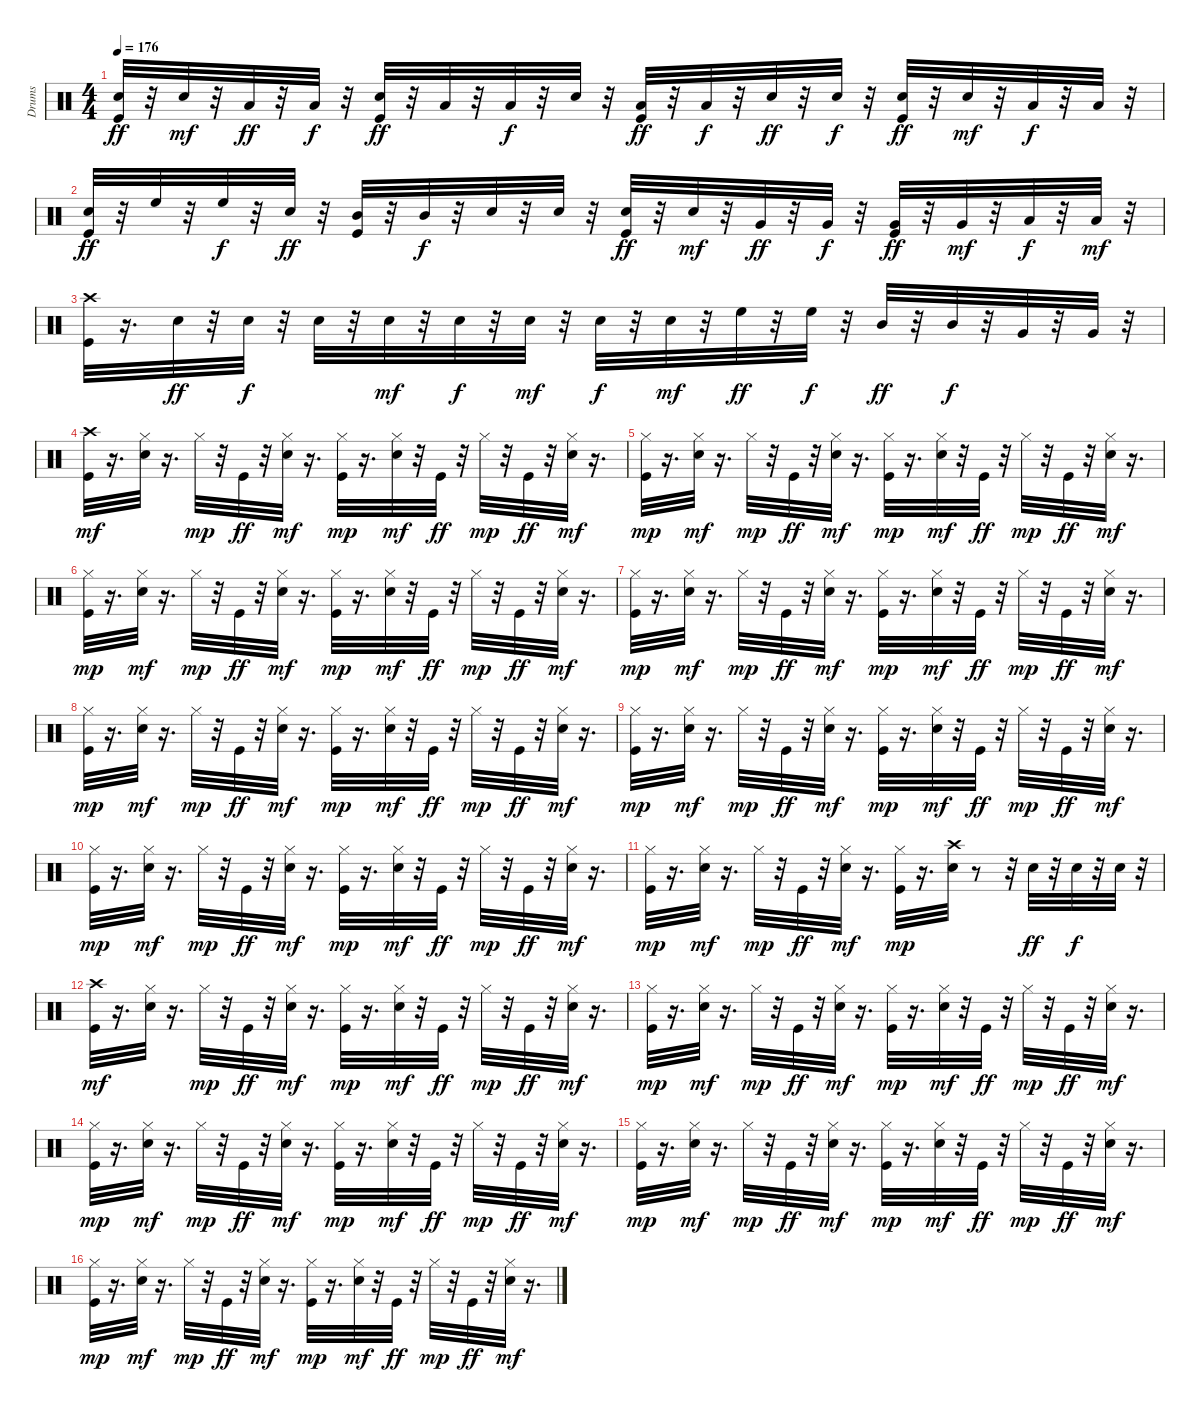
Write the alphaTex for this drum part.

\track ("Drums" "Drums") {instrument percussion}
\staff {score}
\articulation defaults
\ts (4 4)
\tempo 176
\clef neutral
\ks c
("Kick (hit)" "Snare (hit) 2").32{dy ff} r.32 "Snare (hit) 2".32{dy mf} r.32 "Low Floor Tom (hit)".32{dy ff} r.32 "Low Floor Tom (hit)".32{dy f} r.32 ("Kick (hit)" "Snare (hit) 2").32{dy ff} r.32 "Low Floor Tom (hit)".32 r.32 "Low Floor Tom (hit)".32{dy f} r.32 "Snare (hit) 2".32 r.32 ("Kick (hit)" "Low Floor Tom (hit)").32{dy ff} r.32 "Low Floor Tom (hit)".32{dy f} r.32 "Snare (hit) 2".32{dy ff} r.32 "Snare (hit) 2".32{dy f} r.32 ("Kick (hit)" "Snare (hit) 2").32{dy ff} r.32 "Snare (hit) 2".32{dy mf} r.32 "Low Floor Tom (hit)".32{dy f} r.32 "Low Floor Tom (hit)".32 r.32 |
("Kick (hit)" "Snare (hit) 2").32{dy ff} r.32 "High Floor Tom (hit)".32 r.32 "High Floor Tom (hit)".32{dy f} r.32 "Snare (hit) 2".32{dy ff} r.32 ("Kick (hit)" "Mid Tom (hit)").32 r.32 "Mid Tom (hit)".32{dy f} r.32 "Snare (hit) 2".32 r.32 "Snare (hit) 2".32 r.32 ("Kick (hit)" "Snare (hit) 2").32{dy ff} r.32 "Snare (hit) 2".32{dy mf} r.32 "Very Low Tom (hit)".32{dy ff} r.32 "Very Low Tom (hit)".32{dy f} r.32 ("Kick (hit)" "Very Low Tom (hit)").32{dy ff} r.32 "Very Low Tom (hit)".32{dy mf} r.32 "Low Floor Tom (hit)".32{dy f} r.32 "Low Floor Tom (hit)".32{dy mf} r.32 |
("Kick (hit)" "Crash high (hit)").32 r.16{d} "Snare (hit) 2".32{dy ff} r.32 "Snare (hit) 2".32{dy f} r.32 "Snare (hit) 2".32 r.32 "Snare (hit) 2".32{dy mf} r.32 "Snare (hit) 2".32{dy f} r.32 "Snare (hit) 2".32{dy mf} r.32 "Snare (hit) 2".32{dy f} r.32 "Snare (hit) 2".32{dy mf} r.32 "High Floor Tom (hit)".32{dy ff} r.32 "High Floor Tom (hit)".32{dy f} r.32 "Mid Tom (hit)".32{dy ff} r.32 "Mid Tom (hit)".32{dy f} r.32 "Very Low Tom (hit)".32 r.32 "Very Low Tom (hit)".32 r.32 |
("Kick (hit)" "Crash high (hit)").32{dy mf} r.16{d} ("Snare (hit) 2" "Hi-Hat (closed)").32 r.16{d} "Hi-Hat (closed)".32{dy mp} r.32 "Kick (hit)".32{dy ff} r.32 ("Snare (hit) 2" "Hi-Hat (closed)").32{dy mf} r.16{d} ("Kick (hit)" "Hi-Hat (closed)").32{dy mp} r.16{d} ("Snare (hit) 2" "Hi-Hat (closed)").32{dy mf} r.32 "Kick (hit)".32{dy ff} r.32 "Hi-Hat (closed)".32{dy mp} r.32 "Kick (hit)".32{dy ff} r.32 ("Snare (hit) 2" "Hi-Hat (closed)").32{dy mf} r.16{d} |
("Kick (hit)" "Hi-Hat (closed)").32{dy mp} r.16{d} ("Snare (hit) 2" "Hi-Hat (closed)").32{dy mf} r.16{d} "Hi-Hat (closed)".32{dy mp} r.32 "Kick (hit)".32{dy ff} r.32 ("Snare (hit) 2" "Hi-Hat (closed)").32{dy mf} r.16{d} ("Kick (hit)" "Hi-Hat (closed)").32{dy mp} r.16{d} ("Snare (hit) 2" "Hi-Hat (closed)").32{dy mf} r.32 "Kick (hit)".32{dy ff} r.32 "Hi-Hat (closed)".32{dy mp} r.32 "Kick (hit)".32{dy ff} r.32 ("Snare (hit) 2" "Hi-Hat (closed)").32{dy mf} r.16{d} |
("Kick (hit)" "Hi-Hat (closed)").32{dy mp} r.16{d} ("Snare (hit) 2" "Hi-Hat (closed)").32{dy mf} r.16{d} "Hi-Hat (closed)".32{dy mp} r.32 "Kick (hit)".32{dy ff} r.32 ("Snare (hit) 2" "Hi-Hat (closed)").32{dy mf} r.16{d} ("Kick (hit)" "Hi-Hat (closed)").32{dy mp} r.16{d} ("Snare (hit) 2" "Hi-Hat (closed)").32{dy mf} r.32 "Kick (hit)".32{dy ff} r.32 "Hi-Hat (closed)".32{dy mp} r.32 "Kick (hit)".32{dy ff} r.32 ("Snare (hit) 2" "Hi-Hat (closed)").32{dy mf} r.16{d} |
("Kick (hit)" "Hi-Hat (closed)").32{dy mp} r.16{d} ("Snare (hit) 2" "Hi-Hat (closed)").32{dy mf} r.16{d} "Hi-Hat (closed)".32{dy mp} r.32 "Kick (hit)".32{dy ff} r.32 ("Snare (hit) 2" "Hi-Hat (closed)").32{dy mf} r.16{d} ("Kick (hit)" "Hi-Hat (closed)").32{dy mp} r.16{d} ("Snare (hit) 2" "Hi-Hat (closed)").32{dy mf} r.32 "Kick (hit)".32{dy ff} r.32 "Hi-Hat (closed)".32{dy mp} r.32 "Kick (hit)".32{dy ff} r.32 ("Snare (hit) 2" "Hi-Hat (closed)").32{dy mf} r.16{d} |
("Kick (hit)" "Hi-Hat (closed)").32{dy mp} r.16{d} ("Snare (hit) 2" "Hi-Hat (closed)").32{dy mf} r.16{d} "Hi-Hat (closed)".32{dy mp} r.32 "Kick (hit)".32{dy ff} r.32 ("Snare (hit) 2" "Hi-Hat (closed)").32{dy mf} r.16{d} ("Kick (hit)" "Hi-Hat (closed)").32{dy mp} r.16{d} ("Snare (hit) 2" "Hi-Hat (closed)").32{dy mf} r.32 "Kick (hit)".32{dy ff} r.32 "Hi-Hat (closed)".32{dy mp} r.32 "Kick (hit)".32{dy ff} r.32 ("Snare (hit) 2" "Hi-Hat (closed)").32{dy mf} r.16{d} |
("Kick (hit)" "Hi-Hat (closed)").32{dy mp} r.16{d} ("Snare (hit) 2" "Hi-Hat (closed)").32{dy mf} r.16{d} "Hi-Hat (closed)".32{dy mp} r.32 "Kick (hit)".32{dy ff} r.32 ("Snare (hit) 2" "Hi-Hat (closed)").32{dy mf} r.16{d} ("Kick (hit)" "Hi-Hat (closed)").32{dy mp} r.16{d} ("Snare (hit) 2" "Hi-Hat (closed)").32{dy mf} r.32 "Kick (hit)".32{dy ff} r.32 "Hi-Hat (closed)".32{dy mp} r.32 "Kick (hit)".32{dy ff} r.32 ("Snare (hit) 2" "Hi-Hat (closed)").32{dy mf} r.16{d} |
("Kick (hit)" "Hi-Hat (closed)").32{dy mp} r.16{d} ("Snare (hit) 2" "Hi-Hat (closed)").32{dy mf} r.16{d} "Hi-Hat (closed)".32{dy mp} r.32 "Kick (hit)".32{dy ff} r.32 ("Snare (hit) 2" "Hi-Hat (closed)").32{dy mf} r.16{d} ("Kick (hit)" "Hi-Hat (closed)").32{dy mp} r.16{d} ("Snare (hit) 2" "Hi-Hat (closed)").32{dy mf} r.32 "Kick (hit)".32{dy ff} r.32 "Hi-Hat (closed)".32{dy mp} r.32 "Kick (hit)".32{dy ff} r.32 ("Snare (hit) 2" "Hi-Hat (closed)").32{dy mf} r.16{d} |
("Kick (hit)" "Hi-Hat (closed)").32{dy mp} r.16{d} ("Snare (hit) 2" "Hi-Hat (closed)").32{dy mf} r.16{d} "Hi-Hat (closed)".32{dy mp} r.32 "Kick (hit)".32{dy ff} r.32 ("Snare (hit) 2" "Hi-Hat (closed)").32{dy mf} r.16{d} ("Kick (hit)" "Hi-Hat (closed)").32{dy mp} r.16{d} ("Snare (hit) 2" "Crash high (hit)").32 r.8 r.32 "Snare (hit) 2".32{dy ff} r.32 "Snare (hit) 2".32{dy f} r.32 "Snare (hit) 2".32 r.32 |
("Kick (hit)" "Crash high (hit)").32{dy mf} r.16{d} ("Snare (hit) 2" "Hi-Hat (closed)").32 r.16{d} "Hi-Hat (closed)".32{dy mp} r.32 "Kick (hit)".32{dy ff} r.32 ("Snare (hit) 2" "Hi-Hat (closed)").32{dy mf} r.16{d} ("Kick (hit)" "Hi-Hat (closed)").32{dy mp} r.16{d} ("Snare (hit) 2" "Hi-Hat (closed)").32{dy mf} r.32 "Kick (hit)".32{dy ff} r.32 "Hi-Hat (closed)".32{dy mp} r.32 "Kick (hit)".32{dy ff} r.32 ("Snare (hit) 2" "Hi-Hat (closed)").32{dy mf} r.16{d} |
("Kick (hit)" "Hi-Hat (closed)").32{dy mp} r.16{d} ("Snare (hit) 2" "Hi-Hat (closed)").32{dy mf} r.16{d} "Hi-Hat (closed)".32{dy mp} r.32 "Kick (hit)".32{dy ff} r.32 ("Snare (hit) 2" "Hi-Hat (closed)").32{dy mf} r.16{d} ("Kick (hit)" "Hi-Hat (closed)").32{dy mp} r.16{d} ("Snare (hit) 2" "Hi-Hat (closed)").32{dy mf} r.32 "Kick (hit)".32{dy ff} r.32 "Hi-Hat (closed)".32{dy mp} r.32 "Kick (hit)".32{dy ff} r.32 ("Snare (hit) 2" "Hi-Hat (closed)").32{dy mf} r.16{d} |
("Kick (hit)" "Hi-Hat (closed)").32{dy mp} r.16{d} ("Snare (hit) 2" "Hi-Hat (closed)").32{dy mf} r.16{d} "Hi-Hat (closed)".32{dy mp} r.32 "Kick (hit)".32{dy ff} r.32 ("Snare (hit) 2" "Hi-Hat (closed)").32{dy mf} r.16{d} ("Kick (hit)" "Hi-Hat (closed)").32{dy mp} r.16{d} ("Snare (hit) 2" "Hi-Hat (closed)").32{dy mf} r.32 "Kick (hit)".32{dy ff} r.32 "Hi-Hat (closed)".32{dy mp} r.32 "Kick (hit)".32{dy ff} r.32 ("Snare (hit) 2" "Hi-Hat (closed)").32{dy mf} r.16{d} |
("Kick (hit)" "Hi-Hat (closed)").32{dy mp} r.16{d} ("Snare (hit) 2" "Hi-Hat (closed)").32{dy mf} r.16{d} "Hi-Hat (closed)".32{dy mp} r.32 "Kick (hit)".32{dy ff} r.32 ("Snare (hit) 2" "Hi-Hat (closed)").32{dy mf} r.16{d} ("Kick (hit)" "Hi-Hat (closed)").32{dy mp} r.16{d} ("Snare (hit) 2" "Hi-Hat (closed)").32{dy mf} r.32 "Kick (hit)".32{dy ff} r.32 "Hi-Hat (closed)".32{dy mp} r.32 "Kick (hit)".32{dy ff} r.32 ("Snare (hit) 2" "Hi-Hat (closed)").32{dy mf} r.16{d} |
("Kick (hit)" "Hi-Hat (closed)").32{dy mp} r.16{d} ("Snare (hit) 2" "Hi-Hat (closed)").32{dy mf} r.16{d} "Hi-Hat (closed)".32{dy mp} r.32 "Kick (hit)".32{dy ff} r.32 ("Snare (hit) 2" "Hi-Hat (closed)").32{dy mf} r.16{d} ("Kick (hit)" "Hi-Hat (closed)").32{dy mp} r.16{d} ("Snare (hit) 2" "Hi-Hat (closed)").32{dy mf} r.32 "Kick (hit)".32{dy ff} r.32 "Hi-Hat (closed)".32{dy mp} r.32 "Kick (hit)".32{dy ff} r.32 ("Snare (hit) 2" "Hi-Hat (closed)").32{dy mf} r.16{d}
